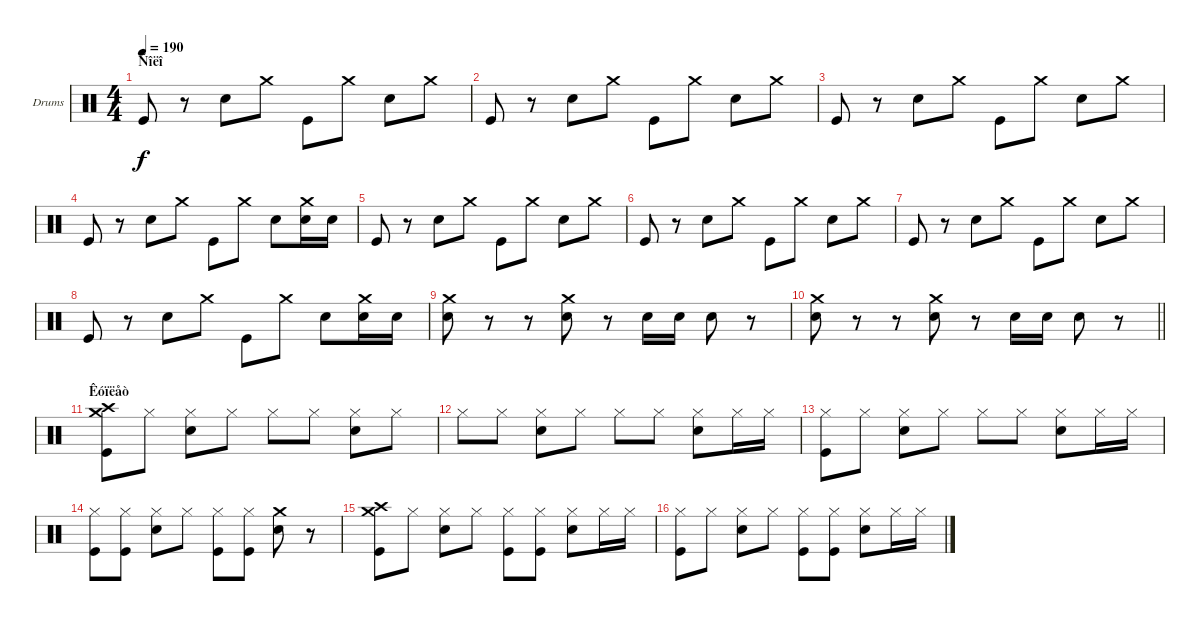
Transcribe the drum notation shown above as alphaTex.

\bracketExtendMode groupsimilarinstruments
\firstSystemTrackNameOrientation horizontal
\otherSystemsTrackNameOrientation horizontal
\track ("Drumkit" "Drums") {instrument percussion}
\staff {score}
\articulation defaults
\ts (4 4)
\section ("" "Ñîëî")
\tempo 190
\clef neutral
\ks c "Kick (hit)".8{dy f}
r.8 "Snare (hit) 2".8 "Crash medium (hit)".8 "Kick (hit)".8 "Crash medium (hit)".8 "Snare (hit) 2".8 "Crash medium (hit)".8 |
"Kick (hit)".8 r.8 "Snare (hit) 2".8 "Crash medium (hit)".8 "Kick (hit)".8 "Crash medium (hit)".8 "Snare (hit) 2".8 "Crash medium (hit)".8 |
"Kick (hit)".8 r.8 "Snare (hit) 2".8 "Crash medium (hit)".8 "Kick (hit)".8 "Crash medium (hit)".8 "Snare (hit) 2".8 "Crash medium (hit)".8 |
"Kick (hit)".8 r.8 "Snare (hit) 2".8 "Crash medium (hit)".8 "Kick (hit)".8 "Crash medium (hit)".8 "Snare (hit) 2".8 ("Snare (hit) 2" "Crash medium (hit)").16 "Snare (hit) 2".16 |
"Kick (hit)".8 r.8 "Snare (hit) 2".8 "Crash medium (hit)".8 "Kick (hit)".8 "Crash medium (hit)".8 "Snare (hit) 2".8 "Crash medium (hit)".8 |
"Kick (hit)".8 r.8 "Snare (hit) 2".8 "Crash medium (hit)".8 "Kick (hit)".8 "Crash medium (hit)".8 "Snare (hit) 2".8 "Crash medium (hit)".8 |
"Kick (hit)".8 r.8 "Snare (hit) 2".8 "Crash medium (hit)".8 "Kick (hit)".8 "Crash medium (hit)".8 "Snare (hit) 2".8 "Crash medium (hit)".8 |
"Kick (hit)".8 r.8 "Snare (hit) 2".8 "Crash medium (hit)".8 "Kick (hit)".8 "Crash medium (hit)".8 "Snare (hit) 2".8 ("Snare (hit) 2" "Crash medium (hit)").16 "Snare (hit) 2".16 |
("Crash medium (hit)" "Snare (hit) 2").8 r.8 r.8 ("Crash medium (hit)" "Snare (hit) 2").8 r.8 "Snare (hit) 2".16 "Snare (hit) 2".16 "Snare (hit) 2".8 r.8 |
\barLineRight lightlight
("Crash medium (hit)" "Snare (hit) 2").8 r.8 r.8 ("Crash medium (hit)" "Snare (hit) 2").8 r.8 "Snare (hit) 2".16 "Snare (hit) 2".16 "Snare (hit) 2".8 r.8 |
\section ("" "Êóïëåò")
("Crash high (hit)" "Crash medium (hit)" "Kick (hit)").8 "Hi-Hat (closed)".8 ("Hi-Hat (closed)" "Snare (hit) 2").8 "Hi-Hat (closed)".8 "Hi-Hat (closed)".8 "Hi-Hat (closed)".8 ("Hi-Hat (closed)" "Snare (hit) 2").8 "Hi-Hat (closed)".8 |
"Hi-Hat (closed)".8 "Hi-Hat (closed)".8 ("Hi-Hat (closed)" "Snare (hit) 2").8 "Hi-Hat (closed)".8 "Hi-Hat (closed)".8 "Hi-Hat (closed)".8 ("Hi-Hat (closed)" "Snare (hit) 2").8 "Hi-Hat (closed)".16 "Hi-Hat (closed)".16 |
("Hi-Hat (closed)" "Kick (hit)").8 "Hi-Hat (closed)".8 ("Hi-Hat (closed)" "Snare (hit) 2").8 "Hi-Hat (closed)".8 "Hi-Hat (closed)".8 "Hi-Hat (closed)".8 ("Hi-Hat (closed)" "Snare (hit) 2").8 "Hi-Hat (closed)".16 "Hi-Hat (closed)".16 |
("Hi-Hat (closed)" "Kick (hit)").8 ("Hi-Hat (closed)" "Kick (hit)").8 ("Hi-Hat (closed)" "Snare (hit) 2").8 "Hi-Hat (closed)".8 ("Hi-Hat (closed)" "Kick (hit)").8 ("Hi-Hat (closed)" "Kick (hit)").8 ("Snare (hit) 2" "Crash medium (hit)").8 r.8 |
("Crash high (hit)" "Crash medium (hit)" "Kick (hit)").8 "Hi-Hat (closed)".8 ("Hi-Hat (closed)" "Snare (hit) 2").8 "Hi-Hat (closed)".8 ("Hi-Hat (closed)" "Kick (hit)").8 ("Hi-Hat (closed)" "Kick (hit)").8 ("Hi-Hat (closed)" "Snare (hit) 2").8 "Hi-Hat (closed)".16 "Hi-Hat (closed)".16 |
("Hi-Hat (closed)" "Kick (hit)").8 "Hi-Hat (closed)".8 ("Hi-Hat (closed)" "Snare (hit) 2").8 "Hi-Hat (closed)".8 ("Hi-Hat (closed)" "Kick (hit)").8 ("Hi-Hat (closed)" "Kick (hit)").8 ("Hi-Hat (closed)" "Snare (hit) 2").8 "Hi-Hat (closed)".16 "Hi-Hat (closed)".16
